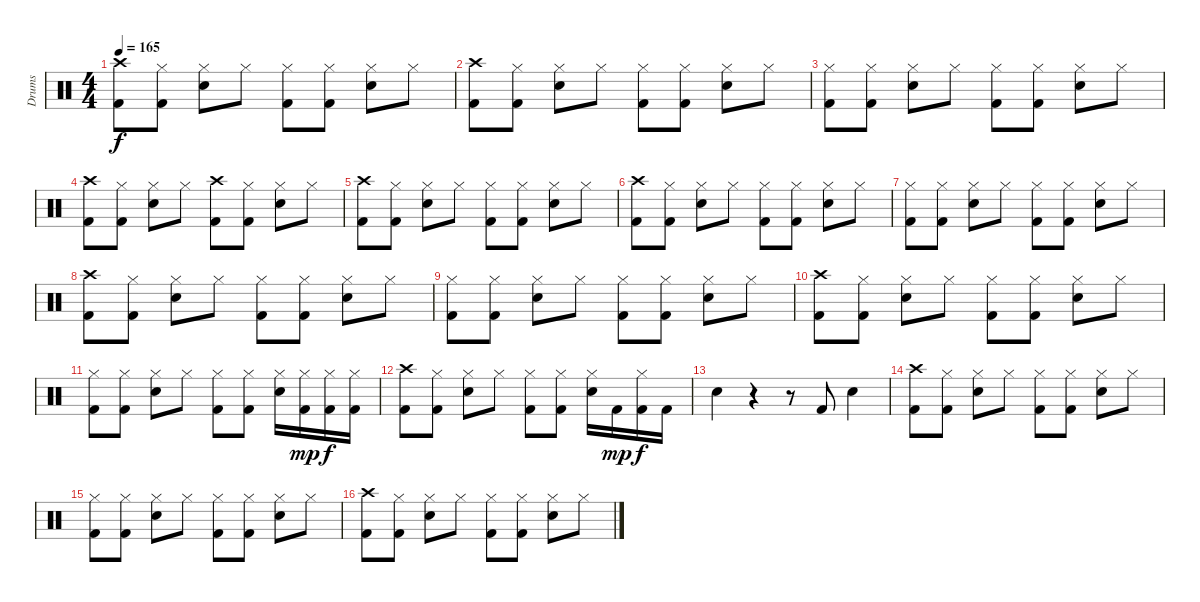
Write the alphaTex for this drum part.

\track ("Drums" "Drums") {instrument percussion}
\staff {score}
\articulation defaults
\ts (4 4)
\tempo 165
\clef neutral
\ks c
("Crash high (hit)" "Kick (hit) 2").8{dy f} ("Hi-Hat (closed)" "Kick (hit) 2").8 ("Hi-Hat (closed)" "Snare (hit) 2").8 "Hi-Hat (closed)".8 ("Hi-Hat (closed)" "Kick (hit) 2").8 ("Hi-Hat (closed)" "Kick (hit) 2").8 ("Hi-Hat (closed)" "Snare (hit) 2").8 "Hi-Hat (closed)".8 |
("Crash high (hit)" "Kick (hit) 2").8 ("Hi-Hat (closed)" "Kick (hit) 2").8 ("Hi-Hat (closed)" "Snare (hit) 2").8 "Hi-Hat (closed)".8 ("Hi-Hat (closed)" "Kick (hit) 2").8 ("Hi-Hat (closed)" "Kick (hit) 2").8 ("Hi-Hat (closed)" "Snare (hit) 2").8 "Hi-Hat (closed)".8 |
("Hi-Hat (closed)" "Kick (hit) 2").8 ("Hi-Hat (closed)" "Kick (hit) 2").8 ("Hi-Hat (closed)" "Snare (hit) 2").8 "Hi-Hat (closed)".8 ("Hi-Hat (closed)" "Kick (hit) 2").8 ("Hi-Hat (closed)" "Kick (hit) 2").8 ("Hi-Hat (closed)" "Snare (hit) 2").8 "Hi-Hat (closed)".8 |
("Crash high (hit)" "Kick (hit) 2").8 ("Hi-Hat (closed)" "Kick (hit) 2").8 ("Hi-Hat (closed)" "Snare (hit) 2").8 "Hi-Hat (closed)".8 ("Crash high (hit)" "Kick (hit) 2").8 ("Hi-Hat (closed)" "Kick (hit) 2").8 ("Hi-Hat (closed)" "Snare (hit) 2").8 "Hi-Hat (closed)".8 |
("Crash high (hit)" "Kick (hit) 2").8 ("Hi-Hat (closed)" "Kick (hit) 2").8 ("Hi-Hat (closed)" "Snare (hit) 2").8 "Hi-Hat (closed)".8 ("Hi-Hat (closed)" "Kick (hit) 2").8 ("Hi-Hat (closed)" "Kick (hit) 2").8 ("Hi-Hat (closed)" "Snare (hit) 2").8 "Hi-Hat (closed)".8 |
("Crash high (hit)" "Kick (hit) 2").8 ("Hi-Hat (closed)" "Kick (hit) 2").8 ("Hi-Hat (closed)" "Snare (hit) 2").8 "Hi-Hat (closed)".8 ("Hi-Hat (closed)" "Kick (hit) 2").8 ("Hi-Hat (closed)" "Kick (hit) 2").8 ("Hi-Hat (closed)" "Snare (hit) 2").8 "Hi-Hat (closed)".8 |
("Hi-Hat (closed)" "Kick (hit) 2").8 ("Hi-Hat (closed)" "Kick (hit) 2").8 ("Hi-Hat (closed)" "Snare (hit) 2").8 "Hi-Hat (closed)".8 ("Hi-Hat (closed)" "Kick (hit) 2").8 ("Hi-Hat (closed)" "Kick (hit) 2").8 ("Hi-Hat (closed)" "Snare (hit) 2").8 "Hi-Hat (closed)".8 |
("Crash high (hit)" "Kick (hit) 2").8 ("Hi-Hat (closed)" "Kick (hit) 2").8 ("Hi-Hat (closed)" "Snare (hit) 2").8 "Hi-Hat (closed)".8 ("Hi-Hat (closed)" "Kick (hit) 2").8 ("Hi-Hat (closed)" "Kick (hit) 2").8 ("Hi-Hat (closed)" "Snare (hit) 2").8 "Hi-Hat (closed)".8 |
("Hi-Hat (closed)" "Kick (hit) 2").8 ("Hi-Hat (closed)" "Kick (hit) 2").8 ("Hi-Hat (closed)" "Snare (hit) 2").8 "Hi-Hat (closed)".8 ("Hi-Hat (closed)" "Kick (hit) 2").8 ("Hi-Hat (closed)" "Kick (hit) 2").8 ("Hi-Hat (closed)" "Snare (hit) 2").8 "Hi-Hat (closed)".8 |
("Crash high (hit)" "Kick (hit) 2").8 ("Hi-Hat (closed)" "Kick (hit) 2").8 ("Hi-Hat (closed)" "Snare (hit) 2").8 "Hi-Hat (closed)".8 ("Hi-Hat (closed)" "Kick (hit) 2").8 ("Hi-Hat (closed)" "Kick (hit) 2").8 ("Hi-Hat (closed)" "Snare (hit) 2").8 "Hi-Hat (closed)".8 |
("Hi-Hat (closed)" "Kick (hit) 2").8 ("Hi-Hat (closed)" "Kick (hit) 2").8 ("Hi-Hat (closed)" "Snare (hit) 2").8 "Hi-Hat (closed)".8 ("Hi-Hat (closed)" "Kick (hit) 2").8 ("Hi-Hat (closed)" "Kick (hit) 2").8 ("Hi-Hat (closed)" "Snare (hit) 2").16 ("Hi-Hat (closed)" "Kick (hit) 2").16{dy mp} ("Hi-Hat (closed)" "Kick (hit) 2").16{dy f} ("Hi-Hat (closed)" "Kick (hit) 2").16 |
("Crash high (hit)" "Kick (hit) 2").8 ("Hi-Hat (closed)" "Kick (hit) 2").8 ("Hi-Hat (closed)" "Snare (hit) 2").8 "Hi-Hat (closed)".8 ("Hi-Hat (closed)" "Kick (hit) 2").8 ("Hi-Hat (closed)" "Kick (hit) 2").8 ("Hi-Hat (closed)" "Snare (hit) 2").16 "Kick (hit) 2".16{dy mp} ("Hi-Hat (closed)" "Kick (hit) 2").16{dy f} "Kick (hit) 2".16 |
"Snare (hit) 2".4 r.4 r.8 "Kick (hit) 2".8 "Snare (hit) 2".4 |
("Crash high (hit)" "Kick (hit) 2").8 ("Hi-Hat (closed)" "Kick (hit) 2").8 ("Hi-Hat (closed)" "Snare (hit) 2").8 "Hi-Hat (closed)".8 ("Hi-Hat (closed)" "Kick (hit) 2").8 ("Hi-Hat (closed)" "Kick (hit) 2").8 ("Hi-Hat (closed)" "Snare (hit) 2").8 "Hi-Hat (closed)".8 |
("Hi-Hat (closed)" "Kick (hit) 2").8 ("Hi-Hat (closed)" "Kick (hit) 2").8 ("Hi-Hat (closed)" "Snare (hit) 2").8 "Hi-Hat (closed)".8 ("Hi-Hat (closed)" "Kick (hit) 2").8 ("Hi-Hat (closed)" "Kick (hit) 2").8 ("Hi-Hat (closed)" "Snare (hit) 2").8 "Hi-Hat (closed)".8 |
("Crash high (hit)" "Kick (hit) 2").8 ("Hi-Hat (closed)" "Kick (hit) 2").8 ("Hi-Hat (closed)" "Snare (hit) 2").8 "Hi-Hat (closed)".8 ("Hi-Hat (closed)" "Kick (hit) 2").8 ("Hi-Hat (closed)" "Kick (hit) 2").8 ("Hi-Hat (closed)" "Snare (hit) 2").8 "Hi-Hat (closed)".8
